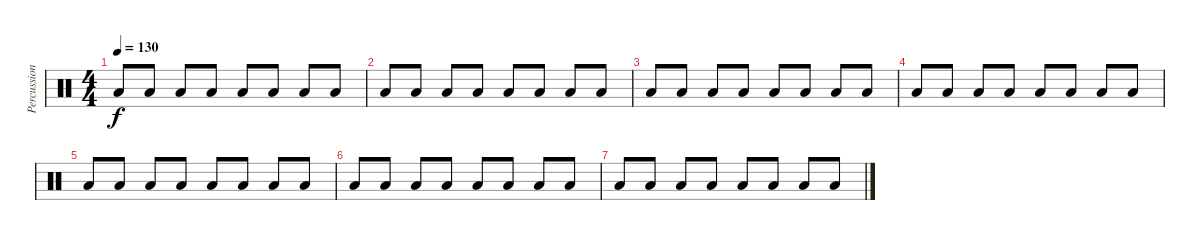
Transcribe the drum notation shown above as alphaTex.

\track ("Percussion" "Percussion") {instrument percussion}
\staff {score}
\articulation defaults
\ts (4 4)
\tempo 130
\clef neutral
\ks c "Low Tom (hit)".8{dy f} "Low Tom (hit)".8 "Low Floor Tom (hit)".8 "Low Tom (hit)".8 "Low Tom (hit)".8 "Low Tom (hit)".8 "Low Floor Tom (hit)".8 "Low Tom (hit)".8
|
"Low Tom (hit)".8 "Low Tom (hit)".8 "Low Floor Tom (hit)".8 "Low Tom (hit)".8 "Low Tom (hit)".8 "Low Tom (hit)".8 "Low Floor Tom (hit)".8 "Low Tom (hit)".8 |
"Low Tom (hit)".8 "Low Tom (hit)".8 "Low Floor Tom (hit)".8 "Low Tom (hit)".8 "Low Tom (hit)".8 "Low Tom (hit)".8 "Low Floor Tom (hit)".8 "Low Tom (hit)".8 |
"Low Tom (hit)".8 "Low Tom (hit)".8 "Low Floor Tom (hit)".8 "Low Tom (hit)".8 "Low Tom (hit)".8 "Low Tom (hit)".8 "Low Floor Tom (hit)".8 "Low Tom (hit)".8 |
"Low Tom (hit)".8 "Low Tom (hit)".8 "Low Floor Tom (hit)".8 "Low Tom (hit)".8 "Low Tom (hit)".8 "Low Tom (hit)".8 "Low Floor Tom (hit)".8 "Low Tom (hit)".8 |
"Low Tom (hit)".8 "Low Tom (hit)".8 "Low Floor Tom (hit)".8 "Low Tom (hit)".8 "Low Tom (hit)".8 "Low Tom (hit)".8 "Low Floor Tom (hit)".8 "Low Tom (hit)".8 |
"Low Tom (hit)".8 "Low Tom (hit)".8 "Low Floor Tom (hit)".8 "Low Tom (hit)".8 "Low Tom (hit)".8 "Low Tom (hit)".8 "Low Floor Tom (hit)".8 "Low Tom (hit)".8
